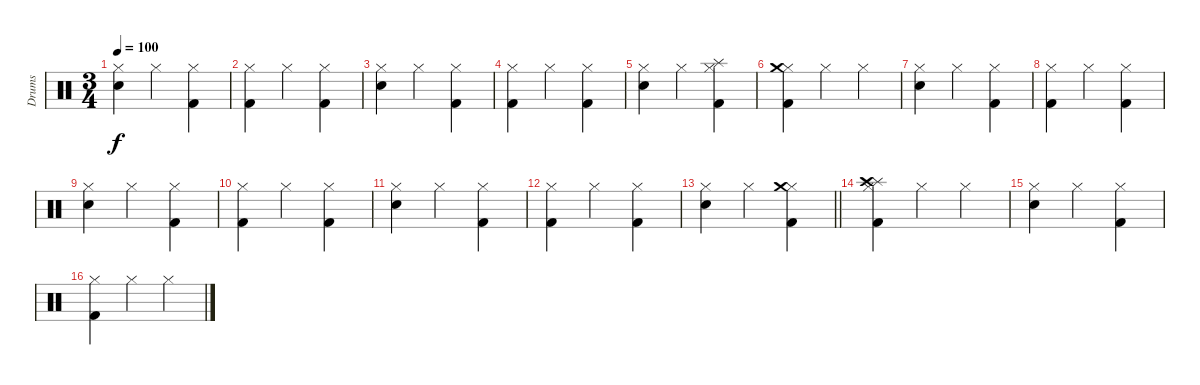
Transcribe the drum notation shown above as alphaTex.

\track ("Drums" "Drums") {instrument percussion}
\staff {score}
\articulation defaults
\ts (3 4)
\tempo 100
\clef neutral
\ks c
("Hi-Hat (closed)" "Electric Snare (hit)").4{dy f} "Hi-Hat (closed)".4 ("Hi-Hat (closed)" "Kick (hit) 2").4 |
("Hi-Hat (closed)" "Kick (hit) 2").4 "Hi-Hat (closed)".4 ("Hi-Hat (closed)" "Kick (hit) 2").4 |
("Hi-Hat (closed)" "Electric Snare (hit)").4 "Hi-Hat (closed)".4 ("Hi-Hat (closed)" "Kick (hit) 2").4 |
("Hi-Hat (closed)" "Kick (hit) 2").4 "Hi-Hat (closed)".4 ("Hi-Hat (closed)" "Kick (hit) 2").4 |
("Hi-Hat (closed)" "Electric Snare (hit)").4 "Hi-Hat (closed)".4 ("Hi-Hat (closed)" "Splash (hit)" "Kick (hit) 2").4 |
("Hi-Hat (closed)" "Crash medium (hit)" "Kick (hit) 2").4 "Hi-Hat (closed)".4 "Hi-Hat (closed)".4 |
("Hi-Hat (closed)" "Electric Snare (hit)").4 "Hi-Hat (closed)".4 ("Hi-Hat (closed)" "Kick (hit) 2").4 |
("Hi-Hat (closed)" "Kick (hit) 2").4 "Hi-Hat (closed)".4 ("Hi-Hat (closed)" "Kick (hit) 2").4 |
("Hi-Hat (closed)" "Electric Snare (hit)").4 "Hi-Hat (closed)".4 ("Hi-Hat (closed)" "Kick (hit) 2").4 |
("Hi-Hat (closed)" "Kick (hit) 2").4 "Hi-Hat (closed)".4 ("Hi-Hat (closed)" "Kick (hit) 2").4 |
("Hi-Hat (closed)" "Electric Snare (hit)").4 "Hi-Hat (closed)".4 ("Hi-Hat (closed)" "Kick (hit) 2").4 |
("Hi-Hat (closed)" "Kick (hit) 2").4 "Hi-Hat (closed)".4 ("Hi-Hat (closed)" "Kick (hit) 2").4 |
\barLineRight lightlight
("Hi-Hat (closed)" "Electric Snare (hit)").4 "Hi-Hat (closed)".4 ("Hi-Hat (closed)" "Crash medium (hit)" "Kick (hit) 2").4 |
("Hi-Hat (closed)" "Splash (hit)" "Crash high (hit)" "Kick (hit) 2").4 "Hi-Hat (closed)".4 "Hi-Hat (closed)".4 |
("Hi-Hat (closed)" "Electric Snare (hit)").4 "Hi-Hat (closed)".4 ("Hi-Hat (closed)" "Kick (hit) 2").4 |
("Hi-Hat (closed)" "Kick (hit) 2").4 "Hi-Hat (closed)".4 "Hi-Hat (closed)".4
